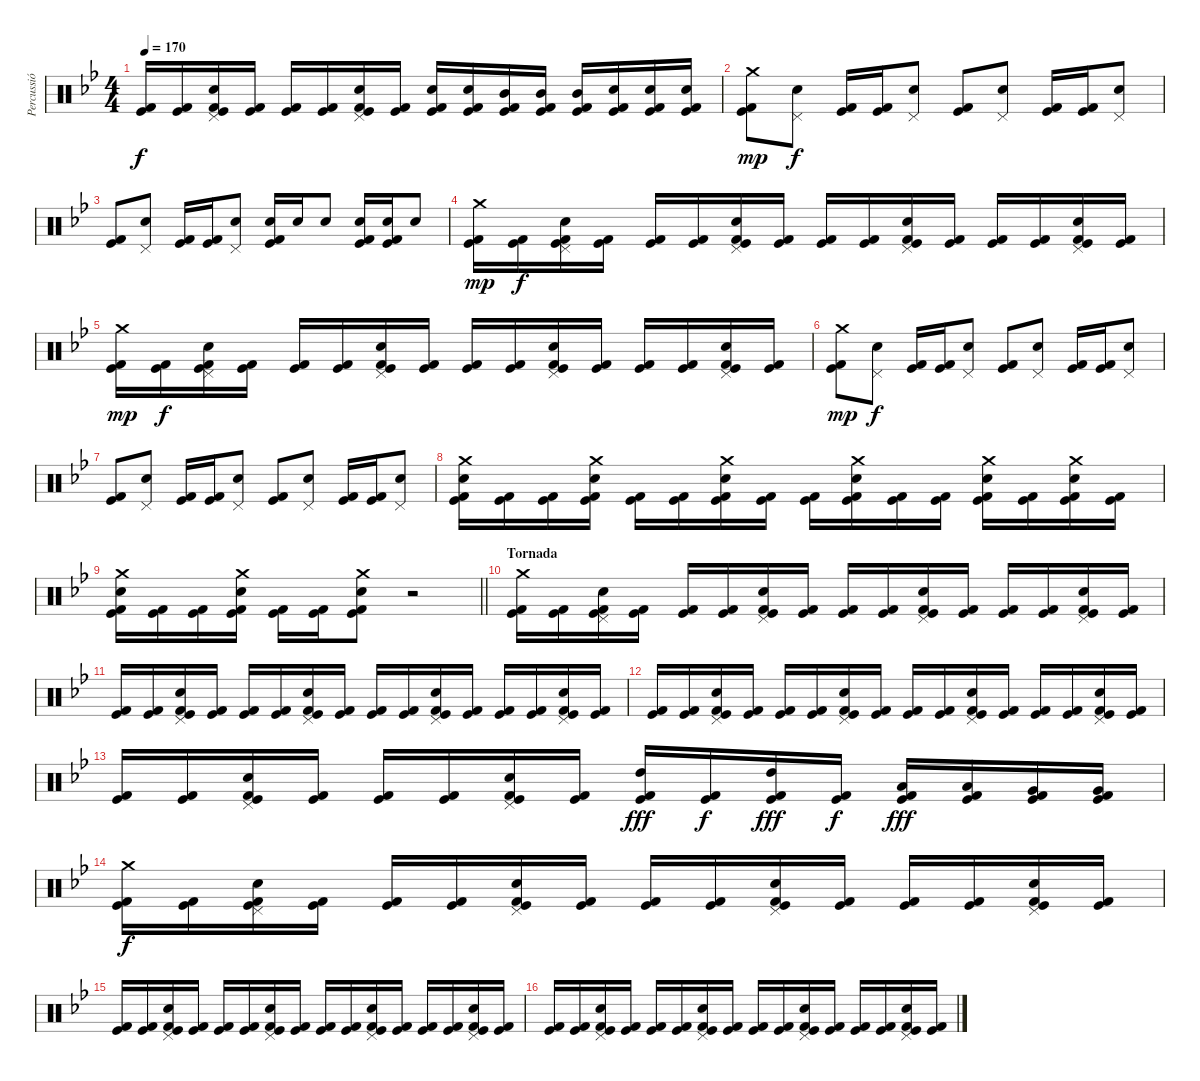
\track ("Percussió" "Percussió") {instrument percussion}
\staff {score}
\articulation defaults
\ts (4 4)
\tempo 170
\clef neutral
\ks gminor
("Kick (hit)" "Kick (hit) 2").16{dy f} ("Kick (hit)" "Kick (hit) 2").16 ("Pedal Hi-Hat (hit)" "Electric Snare (hit)" "Kick (hit)" "Kick (hit) 2").16 ("Kick (hit)" "Kick (hit) 2").16 ("Kick (hit)" "Kick (hit) 2").16 ("Kick (hit)" "Kick (hit) 2").16 ("Pedal Hi-Hat (hit)" "Electric Snare (hit)" "Kick (hit)" "Kick (hit) 2").16 ("Kick (hit)" "Kick (hit) 2").16 ("Electric Snare (hit)" "Kick (hit)" "Kick (hit) 2").16 ("Electric Snare (hit)" "Kick (hit)" "Kick (hit) 2").16 ("Mid Tom (hit)" "Kick (hit)" "Kick (hit) 2").16 ("Mid Tom (hit)" "Kick (hit)" "Kick (hit) 2").16 ("Mid Tom (hit)" "Kick (hit)" "Kick (hit) 2").16 ("Electric Snare (hit)" "Kick (hit)" "Kick (hit) 2").16 ("Electric Snare (hit)" "Kick (hit)" "Kick (hit) 2").16 ("Electric Snare (hit)" "Kick (hit)" "Kick (hit) 2").16 |
("Crash medium (hit)" "Kick (hit)" "Kick (hit) 2").8{dy mp} ("Pedal Hi-Hat (hit)" "Electric Snare (hit)").8{dy f} ("Kick (hit)" "Kick (hit) 2").16 ("Kick (hit)" "Kick (hit) 2").16 ("Pedal Hi-Hat (hit)" "Electric Snare (hit)").8 ("Kick (hit)" "Kick (hit) 2").8 ("Pedal Hi-Hat (hit)" "Electric Snare (hit)").8 ("Kick (hit)" "Kick (hit) 2").16 ("Kick (hit)" "Kick (hit) 2").16 ("Pedal Hi-Hat (hit)" "Electric Snare (hit)").8 |
("Kick (hit)" "Kick (hit) 2").8 ("Pedal Hi-Hat (hit)" "Electric Snare (hit)").8 ("Kick (hit)" "Kick (hit) 2").16 ("Kick (hit)" "Kick (hit) 2").16 ("Pedal Hi-Hat (hit)" "Electric Snare (hit)").8 ("Electric Snare (hit)" "Kick (hit)" "Kick (hit) 2").16 "Electric Snare (hit)".16 "Electric Snare (hit)".8 ("Electric Snare (hit)" "Kick (hit)" "Kick (hit) 2").16 ("Electric Snare (hit)" "Kick (hit)" "Kick (hit) 2").16 "Electric Snare (hit)".8 |
("Crash medium (hit)" "Kick (hit)" "Kick (hit) 2").16{dy mp} ("Kick (hit)" "Kick (hit) 2").16{dy f} ("Pedal Hi-Hat (hit)" "Electric Snare (hit)" "Kick (hit)" "Kick (hit) 2").16 ("Kick (hit)" "Kick (hit) 2").16 ("Kick (hit)" "Kick (hit) 2").16 ("Kick (hit)" "Kick (hit) 2").16 ("Pedal Hi-Hat (hit)" "Electric Snare (hit)" "Kick (hit)" "Kick (hit) 2").16 ("Kick (hit)" "Kick (hit) 2").16 ("Kick (hit)" "Kick (hit) 2").16 ("Kick (hit)" "Kick (hit) 2").16 ("Pedal Hi-Hat (hit)" "Electric Snare (hit)" "Kick (hit)" "Kick (hit) 2").16 ("Kick (hit)" "Kick (hit) 2").16 ("Kick (hit)" "Kick (hit) 2").16 ("Kick (hit)" "Kick (hit) 2").16 ("Pedal Hi-Hat (hit)" "Electric Snare (hit)" "Kick (hit)" "Kick (hit) 2").16 ("Kick (hit)" "Kick (hit) 2").16 |
("Crash medium (hit)" "Kick (hit)" "Kick (hit) 2").16{dy mp} ("Kick (hit)" "Kick (hit) 2").16{dy f} ("Pedal Hi-Hat (hit)" "Electric Snare (hit)" "Kick (hit)" "Kick (hit) 2").16 ("Kick (hit)" "Kick (hit) 2").16 ("Kick (hit)" "Kick (hit) 2").16 ("Kick (hit)" "Kick (hit) 2").16 ("Pedal Hi-Hat (hit)" "Electric Snare (hit)" "Kick (hit)" "Kick (hit) 2").16 ("Kick (hit)" "Kick (hit) 2").16 ("Kick (hit)" "Kick (hit) 2").16 ("Kick (hit)" "Kick (hit) 2").16 ("Pedal Hi-Hat (hit)" "Electric Snare (hit)" "Kick (hit)" "Kick (hit) 2").16 ("Kick (hit)" "Kick (hit) 2").16 ("Kick (hit)" "Kick (hit) 2").16 ("Kick (hit)" "Kick (hit) 2").16 ("Pedal Hi-Hat (hit)" "Electric Snare (hit)" "Kick (hit)" "Kick (hit) 2").16 ("Kick (hit)" "Kick (hit) 2").16 |
("Crash medium (hit)" "Kick (hit)" "Kick (hit) 2").8{dy mp} ("Pedal Hi-Hat (hit)" "Electric Snare (hit)").8{dy f} ("Kick (hit)" "Kick (hit) 2").16 ("Kick (hit)" "Kick (hit) 2").16 ("Pedal Hi-Hat (hit)" "Electric Snare (hit)").8 ("Kick (hit)" "Kick (hit) 2").8 ("Pedal Hi-Hat (hit)" "Electric Snare (hit)").8 ("Kick (hit)" "Kick (hit) 2").16 ("Kick (hit)" "Kick (hit) 2").16 ("Pedal Hi-Hat (hit)" "Electric Snare (hit)").8 |
("Kick (hit)" "Kick (hit) 2").8 ("Pedal Hi-Hat (hit)" "Electric Snare (hit)").8 ("Kick (hit)" "Kick (hit) 2").16 ("Kick (hit)" "Kick (hit) 2").16 ("Pedal Hi-Hat (hit)" "Electric Snare (hit)").8 ("Kick (hit)" "Kick (hit) 2").8 ("Pedal Hi-Hat (hit)" "Electric Snare (hit)").8 ("Kick (hit)" "Kick (hit) 2").16 ("Kick (hit)" "Kick (hit) 2").16 ("Pedal Hi-Hat (hit)" "Electric Snare (hit)").8 |
("Crash medium (hit)" "Electric Snare (hit)" "Kick (hit)" "Kick (hit) 2").16 ("Kick (hit)" "Kick (hit) 2").16 ("Kick (hit)" "Kick (hit) 2").16 ("Crash medium (hit)" "Electric Snare (hit)" "Kick (hit)" "Kick (hit) 2").16 ("Kick (hit)" "Kick (hit) 2").16 ("Kick (hit)" "Kick (hit) 2").16 ("Crash medium (hit)" "Electric Snare (hit)" "Kick (hit)" "Kick (hit) 2").16 ("Kick (hit)" "Kick (hit) 2").16 ("Kick (hit)" "Kick (hit) 2").16 ("Crash medium (hit)" "Electric Snare (hit)" "Kick (hit)" "Kick (hit) 2").16 ("Kick (hit)" "Kick (hit) 2").16 ("Kick (hit)" "Kick (hit) 2").16 ("Crash medium (hit)" "Electric Snare (hit)" "Kick (hit)" "Kick (hit) 2").16 ("Kick (hit)" "Kick (hit) 2").16 ("Crash medium (hit)" "Electric Snare (hit)" "Kick (hit)" "Kick (hit) 2").16 ("Kick (hit)" "Kick (hit) 2").16 |
\barLineRight lightlight
("Crash medium (hit)" "Electric Snare (hit)" "Kick (hit)" "Kick (hit) 2").16 ("Kick (hit)" "Kick (hit) 2").16 ("Kick (hit)" "Kick (hit) 2").16 ("Crash medium (hit)" "Electric Snare (hit)" "Kick (hit)" "Kick (hit) 2").16 ("Kick (hit)" "Kick (hit) 2").16 ("Kick (hit)" "Kick (hit) 2").16 ("Crash medium (hit)" "Electric Snare (hit)" "Kick (hit)" "Kick (hit) 2").8 r.2 |
\section ("" "Tornada")
("Crash medium (hit)" "Kick (hit)" "Kick (hit) 2").16 ("Kick (hit)" "Kick (hit) 2").16 ("Pedal Hi-Hat (hit)" "Electric Snare (hit)" "Kick (hit)" "Kick (hit) 2").16 ("Kick (hit)" "Kick (hit) 2").16 ("Kick (hit)" "Kick (hit) 2").16 ("Kick (hit)" "Kick (hit) 2").16 ("Pedal Hi-Hat (hit)" "Electric Snare (hit)" "Kick (hit)" "Kick (hit) 2").16 ("Kick (hit)" "Kick (hit) 2").16 ("Kick (hit)" "Kick (hit) 2").16 ("Kick (hit)" "Kick (hit) 2").16 ("Pedal Hi-Hat (hit)" "Electric Snare (hit)" "Kick (hit)" "Kick (hit) 2").16 ("Kick (hit)" "Kick (hit) 2").16 ("Kick (hit)" "Kick (hit) 2").16 ("Kick (hit)" "Kick (hit) 2").16 ("Pedal Hi-Hat (hit)" "Electric Snare (hit)" "Kick (hit)" "Kick (hit) 2").16 ("Kick (hit)" "Kick (hit) 2").16 |
("Kick (hit)" "Kick (hit) 2").16 ("Kick (hit)" "Kick (hit) 2").16 ("Pedal Hi-Hat (hit)" "Electric Snare (hit)" "Kick (hit)" "Kick (hit) 2").16 ("Kick (hit)" "Kick (hit) 2").16 ("Kick (hit)" "Kick (hit) 2").16 ("Kick (hit)" "Kick (hit) 2").16 ("Pedal Hi-Hat (hit)" "Electric Snare (hit)" "Kick (hit)" "Kick (hit) 2").16 ("Kick (hit)" "Kick (hit) 2").16 ("Kick (hit)" "Kick (hit) 2").16 ("Kick (hit)" "Kick (hit) 2").16 ("Pedal Hi-Hat (hit)" "Electric Snare (hit)" "Kick (hit)" "Kick (hit) 2").16 ("Kick (hit)" "Kick (hit) 2").16 ("Kick (hit)" "Kick (hit) 2").16 ("Kick (hit)" "Kick (hit) 2").16 ("Pedal Hi-Hat (hit)" "Electric Snare (hit)" "Kick (hit)" "Kick (hit) 2").16 ("Kick (hit)" "Kick (hit) 2").16 |
("Kick (hit)" "Kick (hit) 2").16 ("Kick (hit)" "Kick (hit) 2").16 ("Pedal Hi-Hat (hit)" "Electric Snare (hit)" "Kick (hit)" "Kick (hit) 2").16 ("Kick (hit)" "Kick (hit) 2").16 ("Kick (hit)" "Kick (hit) 2").16 ("Kick (hit)" "Kick (hit) 2").16 ("Pedal Hi-Hat (hit)" "Electric Snare (hit)" "Kick (hit)" "Kick (hit) 2").16 ("Kick (hit)" "Kick (hit) 2").16 ("Kick (hit)" "Kick (hit) 2").16 ("Kick (hit)" "Kick (hit) 2").16 ("Pedal Hi-Hat (hit)" "Electric Snare (hit)" "Kick (hit)" "Kick (hit) 2").16 ("Kick (hit)" "Kick (hit) 2").16 ("Kick (hit)" "Kick (hit) 2").16 ("Kick (hit)" "Kick (hit) 2").16 ("Pedal Hi-Hat (hit)" "Electric Snare (hit)" "Kick (hit)" "Kick (hit) 2").16 ("Kick (hit)" "Kick (hit) 2").16 |
("Kick (hit)" "Kick (hit) 2").16 ("Kick (hit)" "Kick (hit) 2").16 ("Pedal Hi-Hat (hit)" "Electric Snare (hit)" "Kick (hit)" "Kick (hit) 2").16 ("Kick (hit)" "Kick (hit) 2").16 ("Kick (hit)" "Kick (hit) 2").16 ("Kick (hit)" "Kick (hit) 2").16 ("Pedal Hi-Hat (hit)" "Electric Snare (hit)" "Kick (hit)" "Kick (hit) 2").16 ("Kick (hit)" "Kick (hit) 2").16 ("High Tom (hit)" "Kick (hit)" "Kick (hit) 2").16{dy fff} ("Kick (hit)" "Kick (hit) 2").16{dy f} ("High Tom (hit)" "Kick (hit)" "Kick (hit) 2").16{dy fff} ("Kick (hit)" "Kick (hit) 2").16{dy f} ("Low Tom (hit)" "Kick (hit)" "Kick (hit) 2").16{dy fff} ("Low Tom (hit)" "Kick (hit)" "Kick (hit) 2").16 ("Very Low Tom (hit)" "Kick (hit)" "Kick (hit) 2").16 ("Very Low Tom (hit)" "Kick (hit)" "Kick (hit) 2").16 |
("Crash medium (hit)" "Kick (hit)" "Kick (hit) 2").16{dy f} ("Kick (hit)" "Kick (hit) 2").16 ("Pedal Hi-Hat (hit)" "Electric Snare (hit)" "Kick (hit)" "Kick (hit) 2").16 ("Kick (hit)" "Kick (hit) 2").16 ("Kick (hit)" "Kick (hit) 2").16 ("Kick (hit)" "Kick (hit) 2").16 ("Pedal Hi-Hat (hit)" "Electric Snare (hit)" "Kick (hit)" "Kick (hit) 2").16 ("Kick (hit)" "Kick (hit) 2").16 ("Kick (hit)" "Kick (hit) 2").16 ("Kick (hit)" "Kick (hit) 2").16 ("Pedal Hi-Hat (hit)" "Electric Snare (hit)" "Kick (hit)" "Kick (hit) 2").16 ("Kick (hit)" "Kick (hit) 2").16 ("Kick (hit)" "Kick (hit) 2").16 ("Kick (hit)" "Kick (hit) 2").16 ("Pedal Hi-Hat (hit)" "Electric Snare (hit)" "Kick (hit)" "Kick (hit) 2").16 ("Kick (hit)" "Kick (hit) 2").16 |
("Kick (hit)" "Kick (hit) 2").16 ("Kick (hit)" "Kick (hit) 2").16 ("Pedal Hi-Hat (hit)" "Electric Snare (hit)" "Kick (hit)" "Kick (hit) 2").16 ("Kick (hit)" "Kick (hit) 2").16 ("Kick (hit)" "Kick (hit) 2").16 ("Kick (hit)" "Kick (hit) 2").16 ("Pedal Hi-Hat (hit)" "Electric Snare (hit)" "Kick (hit)" "Kick (hit) 2").16 ("Kick (hit)" "Kick (hit) 2").16 ("Kick (hit)" "Kick (hit) 2").16 ("Kick (hit)" "Kick (hit) 2").16 ("Pedal Hi-Hat (hit)" "Electric Snare (hit)" "Kick (hit)" "Kick (hit) 2").16 ("Kick (hit)" "Kick (hit) 2").16 ("Kick (hit)" "Kick (hit) 2").16 ("Kick (hit)" "Kick (hit) 2").16 ("Pedal Hi-Hat (hit)" "Electric Snare (hit)" "Kick (hit)" "Kick (hit) 2").16 ("Kick (hit)" "Kick (hit) 2").16 |
("Kick (hit)" "Kick (hit) 2").16 ("Kick (hit)" "Kick (hit) 2").16 ("Pedal Hi-Hat (hit)" "Electric Snare (hit)" "Kick (hit)" "Kick (hit) 2").16 ("Kick (hit)" "Kick (hit) 2").16 ("Kick (hit)" "Kick (hit) 2").16 ("Kick (hit)" "Kick (hit) 2").16 ("Pedal Hi-Hat (hit)" "Electric Snare (hit)" "Kick (hit)" "Kick (hit) 2").16 ("Kick (hit)" "Kick (hit) 2").16 ("Kick (hit)" "Kick (hit) 2").16 ("Kick (hit)" "Kick (hit) 2").16 ("Pedal Hi-Hat (hit)" "Electric Snare (hit)" "Kick (hit)" "Kick (hit) 2").16 ("Kick (hit)" "Kick (hit) 2").16 ("Kick (hit)" "Kick (hit) 2").16 ("Kick (hit)" "Kick (hit) 2").16 ("Pedal Hi-Hat (hit)" "Electric Snare (hit)" "Kick (hit)" "Kick (hit) 2").16 ("Kick (hit)" "Kick (hit) 2").16
